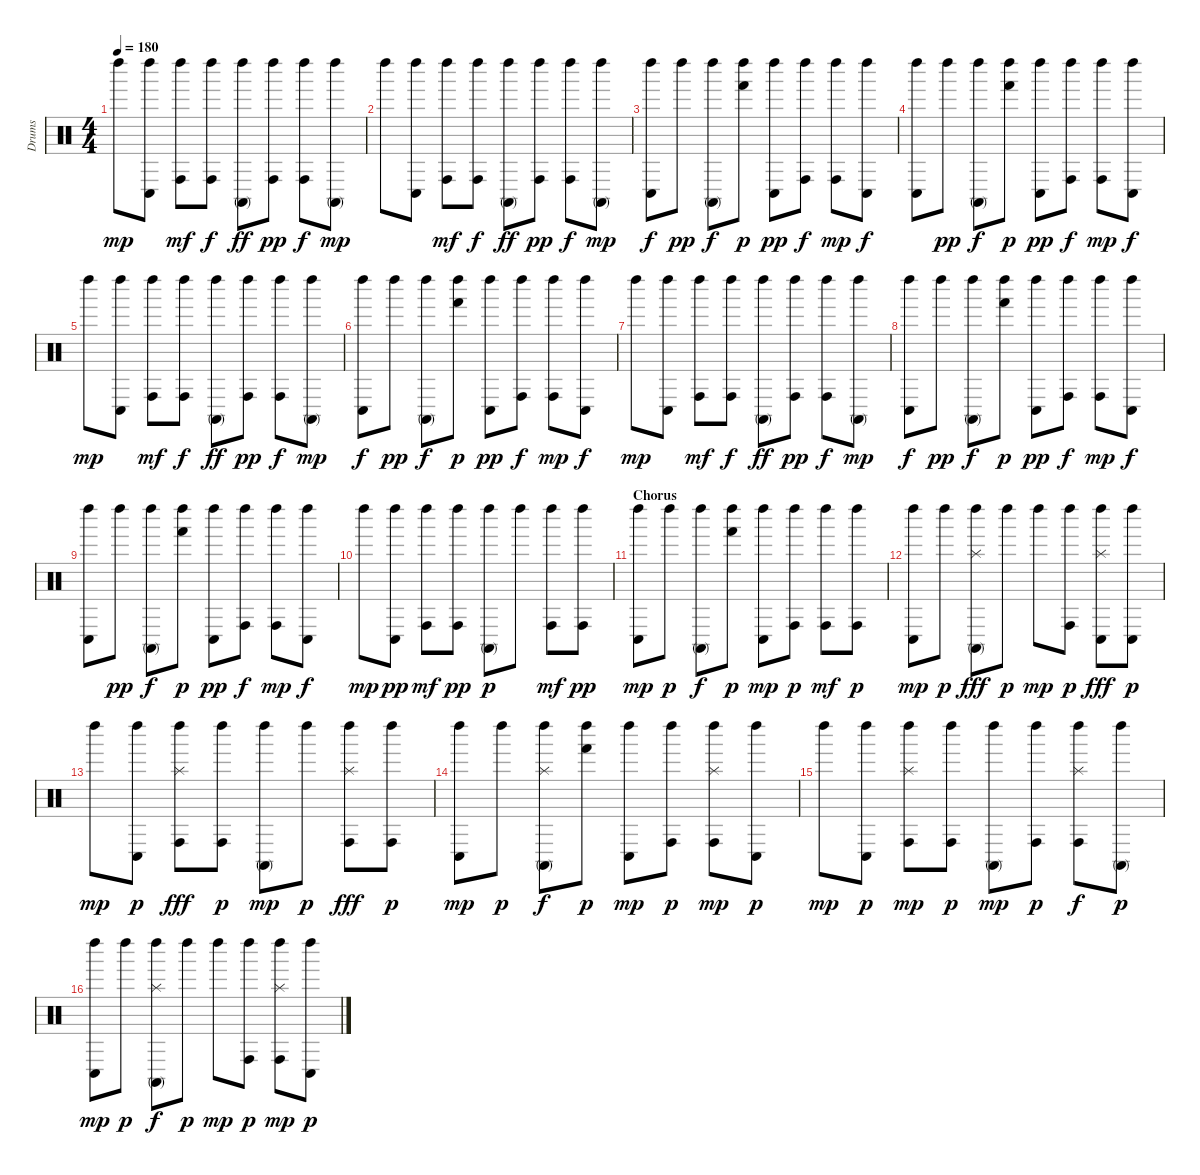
\track ("Drums" "Drums") {instrument percussion}
\staff {score}
\articulation defaults
\ts (4 4)
\tempo 180
\clef neutral
\ks c "Left Maraca (hit)".8{dy mp}
("Left Maraca (hit)" "Conga low (hit)").8 ("Left Maraca (hit)" "Conga high (hit)").8{dy mf} ("Left Maraca (hit)" "Conga high (hit)").8{dy f} ("Left Maraca (hit)" "Conga high (mute)").8{dy ff} ("Left Maraca (hit)" "Conga high (hit)").8{dy pp} ("Left Maraca (hit)" "Conga high (hit)").8{dy f} ("Left Maraca (hit)" "Conga high (mute)").8{dy mp} |
"Left Maraca (hit)".8 ("Left Maraca (hit)" "Conga low (hit)").8 ("Left Maraca (hit)" "Conga high (hit)").8{dy mf} ("Left Maraca (hit)" "Conga high (hit)").8{dy f} ("Left Maraca (hit)" "Conga high (mute)").8{dy ff} ("Left Maraca (hit)" "Conga high (hit)").8{dy pp} ("Left Maraca (hit)" "Conga high (hit)").8{dy f} ("Left Maraca (hit)" "Conga high (mute)").8{dy mp} |
("Left Maraca (hit)" "Conga low (hit)").8{dy f} "Left Maraca (hit)".8{dy pp} ("Left Maraca (hit)" "Conga high (mute)").8{dy f} ("Left Maraca (hit)" "Hand (hit)").8{dy p} ("Left Maraca (hit)" "Conga low (hit)").8{dy pp} ("Left Maraca (hit)" "Conga high (hit)").8{dy f} ("Left Maraca (hit)" "Conga high (hit)").8{dy mp} ("Left Maraca (hit)" "Conga low (hit)").8{dy f} |
("Left Maraca (hit)" "Conga low (hit)").8 "Left Maraca (hit)".8{dy pp} ("Left Maraca (hit)" "Conga high (mute)").8{dy f} ("Left Maraca (hit)" "Hand (hit)").8{dy p} ("Left Maraca (hit)" "Conga low (hit)").8{dy pp} ("Left Maraca (hit)" "Conga high (hit)").8{dy f} ("Left Maraca (hit)" "Conga high (hit)").8{dy mp} ("Left Maraca (hit)" "Conga low (hit)").8{dy f} |
"Left Maraca (hit)".8{dy mp} ("Left Maraca (hit)" "Conga low (hit)").8 ("Left Maraca (hit)" "Conga high (hit)").8{dy mf} ("Left Maraca (hit)" "Conga high (hit)").8{dy f} ("Left Maraca (hit)" "Conga high (mute)").8{dy ff} ("Left Maraca (hit)" "Conga high (hit)").8{dy pp} ("Left Maraca (hit)" "Conga high (hit)").8{dy f} ("Left Maraca (hit)" "Conga high (mute)").8{dy mp} |
("Left Maraca (hit)" "Conga low (hit)").8{dy f} "Left Maraca (hit)".8{dy pp} ("Left Maraca (hit)" "Conga high (mute)").8{dy f} ("Left Maraca (hit)" "Hand (hit)").8{dy p} ("Left Maraca (hit)" "Conga low (hit)").8{dy pp} ("Left Maraca (hit)" "Conga high (hit)").8{dy f} ("Left Maraca (hit)" "Conga high (hit)").8{dy mp} ("Left Maraca (hit)" "Conga low (hit)").8{dy f} |
"Left Maraca (hit)".8{dy mp} ("Left Maraca (hit)" "Conga low (hit)").8 ("Left Maraca (hit)" "Conga high (hit)").8{dy mf} ("Left Maraca (hit)" "Conga high (hit)").8{dy f} ("Left Maraca (hit)" "Conga high (mute)").8{dy ff} ("Left Maraca (hit)" "Conga high (hit)").8{dy pp} ("Left Maraca (hit)" "Conga high (hit)").8{dy f} ("Left Maraca (hit)" "Conga high (mute)").8{dy mp} |
("Left Maraca (hit)" "Conga low (hit)").8{dy f} "Left Maraca (hit)".8{dy pp} ("Left Maraca (hit)" "Conga high (mute)").8{dy f} ("Left Maraca (hit)" "Hand (hit)").8{dy p} ("Left Maraca (hit)" "Conga low (hit)").8{dy pp} ("Left Maraca (hit)" "Conga high (hit)").8{dy f} ("Left Maraca (hit)" "Conga high (hit)").8{dy mp} ("Left Maraca (hit)" "Conga low (hit)").8{dy f} |
("Left Maraca (hit)" "Conga low (hit)").8 "Left Maraca (hit)".8{dy pp} ("Left Maraca (hit)" "Conga high (mute)").8{dy f} ("Left Maraca (hit)" "Hand (hit)").8{dy p} ("Left Maraca (hit)" "Conga low (hit)").8{dy pp} ("Left Maraca (hit)" "Conga high (hit)").8{dy f} ("Left Maraca (hit)" "Conga high (hit)").8{dy mp} ("Left Maraca (hit)" "Conga low (hit)").8{dy f} |
"Left Maraca (hit)".8{dy mp} ("Left Maraca (hit)" "Conga low (hit)").8{dy pp} ("Left Maraca (hit)" "Conga high (hit)").8{dy mf} ("Left Maraca (hit)" "Conga high (hit)").8{dy pp} ("Left Maraca (hit)" "Conga high (mute)").8{dy p} "Left Maraca (hit)".8 ("Left Maraca (hit)" "Conga high (hit)").8{dy mf} ("Left Maraca (hit)" "Conga high (hit)").8{dy pp} |
\section ("" "Chorus")
("Left Maraca (hit)" "Conga low (hit)").8{dy mp} "Left Maraca (hit)".8{dy p} ("Left Maraca (hit)" "Conga high (mute)").8{dy f} ("Left Maraca (hit)" "Hand (hit)").8{dy p} ("Left Maraca (hit)" "Conga low (hit)").8{dy mp} ("Left Maraca (hit)" "Conga high (hit)").8{dy p} ("Left Maraca (hit)" "Conga high (hit)").8{dy mf} ("Left Maraca (hit)" "Conga high (hit)").8{dy p} |
("Left Maraca (hit)" "Conga low (hit)").8{dy mp} "Left Maraca (hit)".8{dy p} ("Left Maraca (hit)" "Conga high (mute)" "Splash (hit)").8{dy fff} "Left Maraca (hit)".8{dy p} "Left Maraca (hit)".8{dy mp} ("Left Maraca (hit)" "Conga high (hit)").8{dy p} ("Left Maraca (hit)" "Conga low (hit)" "Splash (hit)").8{dy fff} ("Left Maraca (hit)" "Conga low (hit)").8{dy p} |
"Left Maraca (hit)".8{dy mp} ("Left Maraca (hit)" "Conga low (hit)").8{dy p} ("Left Maraca (hit)" "Conga high (hit)" "Splash (hit)").8{dy fff} ("Left Maraca (hit)" "Conga high (hit)").8{dy p} ("Left Maraca (hit)" "Conga high (mute)").8{dy mp} "Left Maraca (hit)".8{dy p} ("Left Maraca (hit)" "Conga high (hit)" "Splash (hit)").8{dy fff} ("Left Maraca (hit)" "Conga high (hit)").8{dy p} |
("Left Maraca (hit)" "Conga low (hit)").8{dy mp} "Left Maraca (hit)".8{dy p} ("Left Maraca (hit)" "Conga high (mute)" "Splash (hit)").8{dy f} ("Left Maraca (hit)" "Hand (hit)").8{dy p} ("Left Maraca (hit)" "Conga low (hit)").8{dy mp} ("Left Maraca (hit)" "Conga high (hit)").8{dy p} ("Left Maraca (hit)" "Conga high (hit)" "Splash (hit)").8{dy mp} ("Left Maraca (hit)" "Conga low (hit)").8{dy p} |
"Left Maraca (hit)".8{dy mp} ("Left Maraca (hit)" "Conga low (hit)").8{dy p} ("Left Maraca (hit)" "Conga high (hit)" "Splash (hit)").8{dy mp} ("Left Maraca (hit)" "Conga high (hit)").8{dy p} ("Left Maraca (hit)" "Conga high (mute)").8{dy mp} ("Left Maraca (hit)" "Conga high (hit)").8{dy p} ("Left Maraca (hit)" "Conga high (hit)" "Splash (hit)").8{dy f} ("Left Maraca (hit)" "Conga high (mute)").8{dy p} |
("Left Maraca (hit)" "Conga low (hit)").8{dy mp} "Left Maraca (hit)".8{dy p} ("Left Maraca (hit)" "Conga high (mute)" "Splash (hit)").8{dy f} "Left Maraca (hit)".8{dy p} "Left Maraca (hit)".8{dy mp} ("Left Maraca (hit)" "Conga high (hit)").8{dy p} ("Left Maraca (hit)" "Conga high (hit)" "Splash (hit)").8{dy mp} ("Left Maraca (hit)" "Conga low (hit)").8{dy p}
